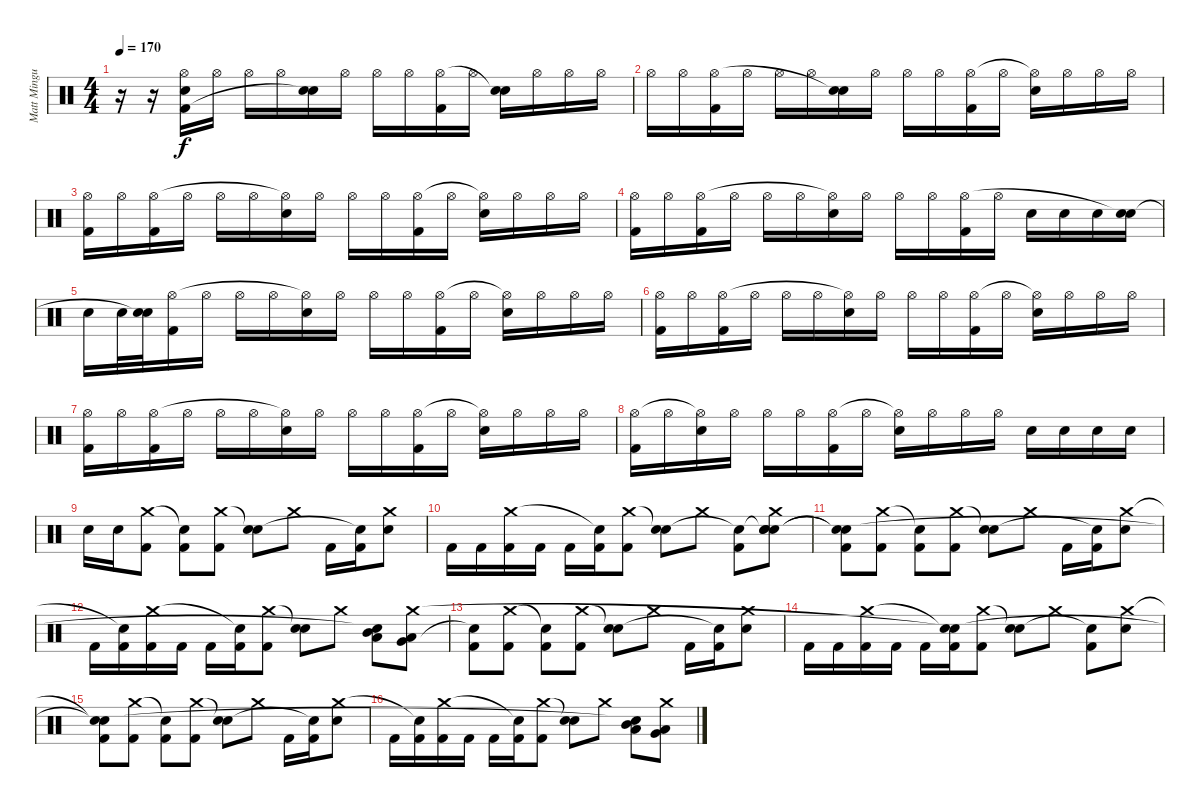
\track ("Matt Mingus" "Matt Mingu") {instrument percussion}
\staff {score}
\articulation defaults
\ts (4 4)
\tempo 170
\clef neutral
\ks c
r.16{dy f} r.16 ("Snare (hit)"{t} "Kick (hit) 2" "Hi-Hat (open)").16 "Hi-Hat (open)".16 "Hi-Hat (open)".16 "Hi-Hat (open)".16 ("Electric Snare (hit)" "Snare (hit)"{t}).16 "Hi-Hat (open)".16 "Hi-Hat (open)".16 "Hi-Hat (open)".16 ("Kick (hit) 2" "Hi-Hat (open)").16 "Hi-Hat (open)".16 ("Electric Snare (hit)" "Snare (hit)"{t}).16 "Hi-Hat (open)".16 "Hi-Hat (open)".16 "Hi-Hat (open)".16 |
"Hi-Hat (open)".16 "Hi-Hat (open)".16 ("Kick (hit) 2" "Hi-Hat (open)").16 "Hi-Hat (open)".16 "Hi-Hat (open)".16 "Hi-Hat (open)".16 ("Electric Snare (hit)" "Snare (hit)"{t}).16 "Hi-Hat (open)".16 "Hi-Hat (open)".16 "Hi-Hat (open)".16 ("Kick (hit) 2" "Hi-Hat (open)").16 "Hi-Hat (open)".16 ("Electric Snare (hit)" "Hi-Hat (open)"{t}).16 "Hi-Hat (open)".16 "Hi-Hat (open)".16 "Hi-Hat (open)".16 |
("Kick (hit) 2" "Hi-Hat (open)").16 "Hi-Hat (open)".16 ("Kick (hit) 2" "Hi-Hat (open)").16 "Hi-Hat (open)".16 "Hi-Hat (open)".16 "Hi-Hat (open)".16 ("Electric Snare (hit)" "Hi-Hat (open)"{t}).16 "Hi-Hat (open)".16 "Hi-Hat (open)".16 "Hi-Hat (open)".16 ("Kick (hit) 2" "Hi-Hat (open)").16 "Hi-Hat (open)".16 ("Electric Snare (hit)" "Hi-Hat (open)"{t}).16 "Hi-Hat (open)".16 "Hi-Hat (open)".16 "Hi-Hat (open)".16 |
("Kick (hit) 2" "Hi-Hat (open)").16 "Hi-Hat (open)".16 ("Kick (hit) 2" "Hi-Hat (open)").16 "Hi-Hat (open)".16 "Hi-Hat (open)".16 "Hi-Hat (open)".16 ("Electric Snare (hit)" "Hi-Hat (open)"{t}).16 "Hi-Hat (open)".16 "Hi-Hat (open)".16 "Hi-Hat (open)".16 ("Kick (hit) 2" "Hi-Hat (open)").16 "Hi-Hat (open)".16 "Electric Snare (hit)".16 "Electric Snare (hit)".16 "Electric Snare (hit)".16 ("Electric Snare (hit)" "Snare (hit)"{t}).16 |
"Electric Snare (hit)".16 "Electric Snare (hit)".32 ("Electric Snare (hit)" "Snare (hit)"{t}).32 ("Kick (hit) 2" "Hi-Hat (open)").16 "Hi-Hat (open)".16 "Hi-Hat (open)".16 "Hi-Hat (open)".16 ("Electric Snare (hit)" "Hi-Hat (open)"{t}).16 "Hi-Hat (open)".16 "Hi-Hat (open)".16 "Hi-Hat (open)".16 ("Kick (hit) 2" "Hi-Hat (open)").16 "Hi-Hat (open)".16 ("Electric Snare (hit)" "Hi-Hat (open)"{t}).16 "Hi-Hat (open)".16 "Hi-Hat (open)".16 "Hi-Hat (open)".16 |
("Kick (hit) 2" "Hi-Hat (open)").16 "Hi-Hat (open)".16 ("Kick (hit) 2" "Hi-Hat (open)").16 "Hi-Hat (open)".16 "Hi-Hat (open)".16 "Hi-Hat (open)".16 ("Electric Snare (hit)" "Hi-Hat (open)"{t}).16 "Hi-Hat (open)".16 "Hi-Hat (open)".16 "Hi-Hat (open)".16 ("Kick (hit) 2" "Hi-Hat (open)").16 "Hi-Hat (open)".16 ("Electric Snare (hit)" "Hi-Hat (open)"{t}).16 "Hi-Hat (open)".16 "Hi-Hat (open)".16 "Hi-Hat (open)".16 |
("Kick (hit) 2" "Hi-Hat (open)").16 "Hi-Hat (open)".16 ("Kick (hit) 2" "Hi-Hat (open)").16 "Hi-Hat (open)".16 "Hi-Hat (open)".16 "Hi-Hat (open)".16 ("Electric Snare (hit)" "Hi-Hat (open)"{t}).16 "Hi-Hat (open)".16 "Hi-Hat (open)".16 "Hi-Hat (open)".16 ("Kick (hit) 2" "Hi-Hat (open)").16 "Hi-Hat (open)".16 ("Electric Snare (hit)" "Hi-Hat (open)"{t}).16 "Hi-Hat (open)".16 "Hi-Hat (open)".16 "Hi-Hat (open)".16 |
("Kick (hit) 2" "Hi-Hat (open)").16 "Hi-Hat (open)".16 ("Electric Snare (hit)" "Hi-Hat (open)"{t}).16 "Hi-Hat (open)".16 "Hi-Hat (open)".16 "Hi-Hat (open)".16 ("Kick (hit) 2" "Hi-Hat (open)").16 "Hi-Hat (open)".16 ("Electric Snare (hit)" "Hi-Hat (open)"{t}).16 "Hi-Hat (open)".16 "Hi-Hat (open)".16 "Hi-Hat (open)".16 "Electric Snare (hit)".16 "Electric Snare (hit)".16 "Electric Snare (hit)".16 "Electric Snare (hit)".16 |
"Electric Snare (hit)".16 "Electric Snare (hit)".16 ("Kick (hit) 2" "Crash medium (hit)").8 ("Kick (hit) 2" "Snare (hit)"{t}).8 ("Kick (hit) 2" "Crash medium (hit)").8 ("Electric Snare (hit)" "Snare (hit)"{t}).8 "Crash medium (hit)".8 "Kick (hit) 2".16 ("Kick (hit) 2" "Snare (hit)"{t}).16 ("Electric Snare (hit)" "Crash medium (hit)").8 |
"Kick (hit) 2".16 "Kick (hit) 2".16 ("Kick (hit) 2" "Crash medium (hit)").16 "Kick (hit) 2".16 "Kick (hit) 2".16 ("Kick (hit) 2" "Snare (hit)"{t}).16 ("Kick (hit) 2" "Crash medium (hit)").8 ("Electric Snare (hit)" "Snare (hit)"{t}).8 "Crash medium (hit)".8 ("Kick (hit) 2" "Snare (hit)"{t}).8 ("Electric Snare (hit)" "Snare (hit)"{t} "Snare (hit)" "Crash medium (hit)").8 |
("Kick (hit) 2" "Snare (hit)"{t} "Snare (hit)"{t}).8 ("Kick (hit) 2" "Crash medium (hit)").8 ("Kick (hit) 2" "Snare (hit)"{t}).8 ("Kick (hit) 2" "Crash medium (hit)").8 ("Electric Snare (hit)" "Snare (hit)"{t}).8 "Crash medium (hit)".8 "Kick (hit) 2".16 ("Kick (hit) 2" "Snare (hit)"{t}).16 ("Electric Snare (hit)" "Crash medium (hit)").8 |
"Kick (hit) 2".16 ("Kick (hit) 2" "Snare (hit)"{t}).16 ("Kick (hit) 2" "Crash medium (hit)").16 "Kick (hit) 2".16 "Kick (hit) 2".16 ("Kick (hit) 2" "Snare (hit)"{t}).16 ("Kick (hit) 2" "Crash medium (hit)").8 ("Electric Snare (hit)" "Snare (hit)"{t}).8 "Crash medium (hit)".8 ("Mid Tom (hit)" "Low Tom (hit)" "Snare (hit)"{t}).8 ("Low Tom (hit)" "Very Low Tom (hit)" "Crash medium (hit)").8 |
("Kick (hit) 2" "Snare (hit)"{t}).8 ("Kick (hit) 2" "Crash medium (hit)").8 ("Kick (hit) 2" "Snare (hit)"{t}).8 ("Kick (hit) 2" "Crash medium (hit)").8 ("Electric Snare (hit)" "Snare (hit)"{t}).8 "Crash medium (hit)".8 "Kick (hit) 2".16 ("Kick (hit) 2" "Snare (hit)"{t}).16 ("Electric Snare (hit)" "Crash medium (hit)").8 |
"Kick (hit) 2".16 "Kick (hit) 2".16 ("Kick (hit) 2" "Crash medium (hit)").16 "Kick (hit) 2".16 "Kick (hit) 2".16 ("Kick (hit) 2" "Snare (hit)"{t} "Snare (hit)"{t}).16 ("Kick (hit) 2" "Crash medium (hit)").8 ("Electric Snare (hit)" "Snare (hit)"{t}).8 "Crash medium (hit)".8 ("Kick (hit) 2" "Snare (hit)"{t}).8 ("Electric Snare (hit)" "Crash medium (hit)").8 |
("Kick (hit) 2" "Snare (hit)"{t} "Snare (hit)"{t}).8 ("Kick (hit) 2" "Crash medium (hit)").8 ("Kick (hit) 2" "Snare (hit)"{t}).8 ("Kick (hit) 2" "Crash medium (hit)").8 ("Electric Snare (hit)" "Snare (hit)"{t}).8 "Crash medium (hit)".8 "Kick (hit) 2".16 ("Kick (hit) 2" "Snare (hit)"{t}).16 ("Electric Snare (hit)" "Crash medium (hit)").8 |
"Kick (hit) 2".16 ("Kick (hit) 2" "Snare (hit)"{t}).16 ("Kick (hit) 2" "Crash medium (hit)").16 "Kick (hit) 2".16 "Kick (hit) 2".16 ("Kick (hit) 2" "Snare (hit)"{t}).16 ("Kick (hit) 2" "Crash medium (hit)").8 ("Electric Snare (hit)" "Snare (hit)"{t}).8 "Crash medium (hit)".8 ("Mid Tom (hit)" "Low Tom (hit)" "Snare (hit)"{t}).8 ("Low Tom (hit)" "Very Low Tom (hit)" "Crash medium (hit)").8
